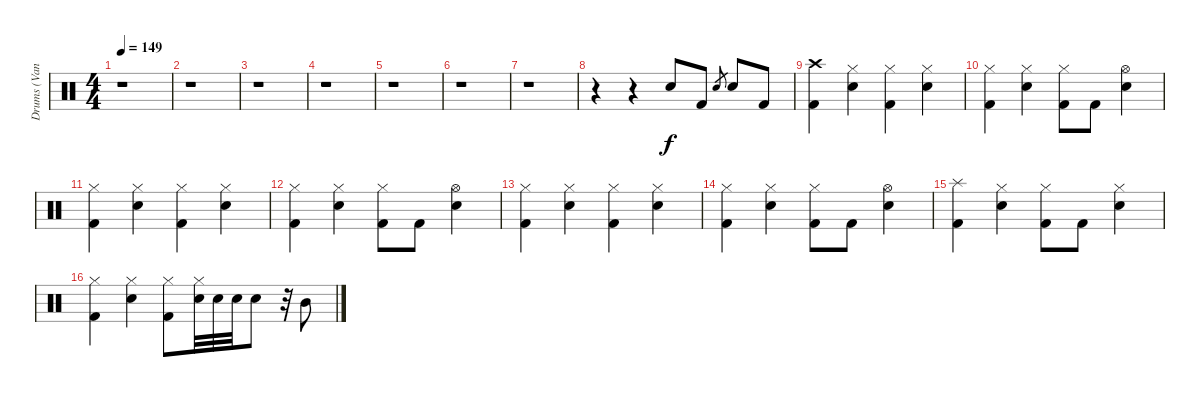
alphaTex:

\track ("Drums (Vandel)" "Drums (Van") {instrument percussion}
\staff {score}
\articulation defaults
\ts (4 4)
\tempo 149
\clef neutral
\ks c
r.1{dy f} |
r.1 |
r.1 |
r.1 |
r.1 |
r.1 |
r.1 |
r.4 r.4 "Snare (hit) 2".8 "Kick (hit) 2".8 "Snare (hit) 2".8{gr} "Snare (hit) 2".8 "Kick (hit) 2".8 |
("Crash high (hit)" "Kick (hit) 2").4 ("Hi-Hat (closed)" "Snare (hit) 2").4 ("Hi-Hat (closed)" "Kick (hit) 2").4 ("Hi-Hat (closed)" "Snare (hit) 2").4 |
("Hi-Hat (closed)" "Kick (hit) 2").4 ("Hi-Hat (closed)" "Snare (hit) 2").4 ("Hi-Hat (closed)" "Kick (hit) 2").8 "Kick (hit) 2".8 ("Hi-Hat (open)" "Snare (hit) 2").4 |
("Hi-Hat (closed)" "Kick (hit) 2").4 ("Hi-Hat (closed)" "Snare (hit) 2").4 ("Hi-Hat (closed)" "Kick (hit) 2").4 ("Hi-Hat (closed)" "Snare (hit) 2").4 |
("Hi-Hat (closed)" "Kick (hit) 2").4 ("Hi-Hat (closed)" "Snare (hit) 2").4 ("Hi-Hat (closed)" "Kick (hit) 2").8 "Kick (hit) 2".8 ("Hi-Hat (open)" "Snare (hit) 2").4 |
("Hi-Hat (closed)" "Kick (hit) 2").4 ("Hi-Hat (closed)" "Snare (hit) 2").4 ("Hi-Hat (closed)" "Kick (hit) 2").4 ("Hi-Hat (closed)" "Snare (hit) 2").4 |
("Hi-Hat (closed)" "Kick (hit) 2").4 ("Hi-Hat (closed)" "Snare (hit) 2").4 ("Hi-Hat (closed)" "Kick (hit) 2").8 "Kick (hit) 2".8 ("Hi-Hat (open)" "Snare (hit) 2").4 |
("Splash (hit)" "Kick (hit) 2").4 ("Hi-Hat (closed)" "Snare (hit) 2").4 ("Hi-Hat (closed)" "Kick (hit) 2").8 "Kick (hit) 2".8 ("Hi-Hat (closed)" "Snare (hit) 2").4 |
("Hi-Hat (closed)" "Kick (hit) 2").4 ("Hi-Hat (closed)" "Snare (hit) 2").4 ("Hi-Hat (closed)" "Kick (hit) 2").8 ("Hi-Hat (closed)" "Snare (hit) 2").32 "Snare (hit) 2".32 "Snare (hit) 2".32 "Snare (hit) 2".8 r.32 "Mid Tom (hit)".8
